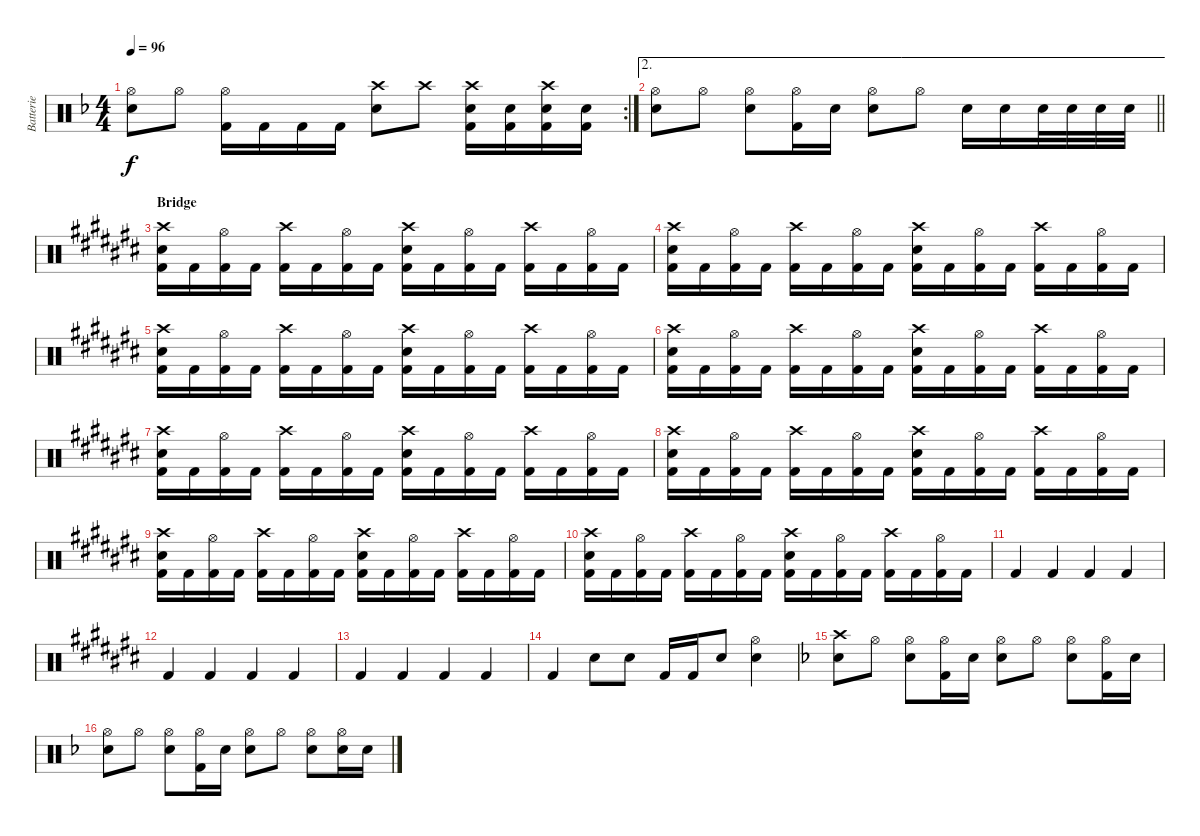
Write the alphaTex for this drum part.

\track ("Batterie" "Batterie") {instrument percussion}
\staff {score}
\articulation defaults
\rc 2
\ts (4 4)
\tempo 96
\clef neutral
\ks f
("Hi-Hat (open)" "Snare (hit) 2").8{dy f} "Hi-Hat (open)".8 ("Hi-Hat (open)" "Kick (hit) 2").16 "Kick (hit) 2".16 "Kick (hit) 2".16 "Kick (hit) 2".16 ("Crash high (hit)" "Snare (hit) 2").8 "Crash high (hit)".8 ("Crash high (hit)" "Snare (hit) 2" "Kick (hit) 2").16 ("Snare (hit) 2" "Kick (hit) 2").16 ("Crash high (hit)" "Snare (hit) 2" "Kick (hit) 2").16 ("Snare (hit) 2" "Kick (hit) 2").16 |
\ae 2
\barLineRight lightlight
("Hi-Hat (open)" "Snare (hit) 2").8 "Hi-Hat (open)".8 ("Hi-Hat (open)" "Snare (hit) 2").8 ("Hi-Hat (open)" "Kick (hit) 2").16 "Snare (hit) 2".16 ("Hi-Hat (open)" "Snare (hit) 2").8 "Hi-Hat (open)".8 "Snare (hit) 2".16 "Snare (hit) 2".16 "Snare (hit) 2".32 "Snare (hit) 2".32 "Snare (hit) 2".32 "Snare (hit) 2".32 |
\section ("" "Bridge")
\ks c#
("Crash high (hit)" "Snare (hit) 2" "Kick (hit) 2").16 "Kick (hit) 2".16 ("Hi-Hat (open)" "Kick (hit) 2").16 "Kick (hit) 2".16 ("Crash high (hit)" "Kick (hit) 2").16 "Kick (hit) 2".16 ("Hi-Hat (open)" "Kick (hit) 2").16 "Kick (hit) 2".16 ("Crash high (hit)" "Snare (hit) 2" "Kick (hit) 2").16 "Kick (hit) 2".16 ("Hi-Hat (open)" "Kick (hit) 2").16 "Kick (hit) 2".16 ("Crash high (hit)" "Kick (hit) 2").16 "Kick (hit) 2".16 ("Hi-Hat (open)" "Kick (hit) 2").16 "Kick (hit) 2".16 |
("Crash high (hit)" "Snare (hit) 2" "Kick (hit) 2").16 "Kick (hit) 2".16 ("Hi-Hat (open)" "Kick (hit) 2").16 "Kick (hit) 2".16 ("Crash high (hit)" "Kick (hit) 2").16 "Kick (hit) 2".16 ("Hi-Hat (open)" "Kick (hit) 2").16 "Kick (hit) 2".16 ("Crash high (hit)" "Snare (hit) 2" "Kick (hit) 2").16 "Kick (hit) 2".16 ("Hi-Hat (open)" "Kick (hit) 2").16 "Kick (hit) 2".16 ("Crash high (hit)" "Kick (hit) 2").16 "Kick (hit) 2".16 ("Hi-Hat (open)" "Kick (hit) 2").16 "Kick (hit) 2".16 |
("Crash high (hit)" "Snare (hit) 2" "Kick (hit) 2").16 "Kick (hit) 2".16 ("Hi-Hat (open)" "Kick (hit) 2").16 "Kick (hit) 2".16 ("Crash high (hit)" "Kick (hit) 2").16 "Kick (hit) 2".16 ("Hi-Hat (open)" "Kick (hit) 2").16 "Kick (hit) 2".16 ("Crash high (hit)" "Snare (hit) 2" "Kick (hit) 2").16 "Kick (hit) 2".16 ("Hi-Hat (open)" "Kick (hit) 2").16 "Kick (hit) 2".16 ("Crash high (hit)" "Kick (hit) 2").16 "Kick (hit) 2".16 ("Hi-Hat (open)" "Kick (hit) 2").16 "Kick (hit) 2".16 |
("Crash high (hit)" "Snare (hit) 2" "Kick (hit) 2").16 "Kick (hit) 2".16 ("Hi-Hat (open)" "Kick (hit) 2").16 "Kick (hit) 2".16 ("Crash high (hit)" "Kick (hit) 2").16 "Kick (hit) 2".16 ("Hi-Hat (open)" "Kick (hit) 2").16 "Kick (hit) 2".16 ("Crash high (hit)" "Snare (hit) 2" "Kick (hit) 2").16 "Kick (hit) 2".16 ("Hi-Hat (open)" "Kick (hit) 2").16 "Kick (hit) 2".16 ("Crash high (hit)" "Kick (hit) 2").16 "Kick (hit) 2".16 ("Hi-Hat (open)" "Kick (hit) 2").16 "Kick (hit) 2".16 |
("Crash high (hit)" "Snare (hit) 2" "Kick (hit) 2").16 "Kick (hit) 2".16 ("Hi-Hat (open)" "Kick (hit) 2").16 "Kick (hit) 2".16 ("Crash high (hit)" "Kick (hit) 2").16 "Kick (hit) 2".16 ("Hi-Hat (open)" "Kick (hit) 2").16 "Kick (hit) 2".16 ("Crash high (hit)" "Snare (hit) 2" "Kick (hit) 2").16 "Kick (hit) 2".16 ("Hi-Hat (open)" "Kick (hit) 2").16 "Kick (hit) 2".16 ("Crash high (hit)" "Kick (hit) 2").16 "Kick (hit) 2".16 ("Hi-Hat (open)" "Kick (hit) 2").16 "Kick (hit) 2".16 |
("Crash high (hit)" "Snare (hit) 2" "Kick (hit) 2").16 "Kick (hit) 2".16 ("Hi-Hat (open)" "Kick (hit) 2").16 "Kick (hit) 2".16 ("Crash high (hit)" "Kick (hit) 2").16 "Kick (hit) 2".16 ("Hi-Hat (open)" "Kick (hit) 2").16 "Kick (hit) 2".16 ("Crash high (hit)" "Snare (hit) 2" "Kick (hit) 2").16 "Kick (hit) 2".16 ("Hi-Hat (open)" "Kick (hit) 2").16 "Kick (hit) 2".16 ("Crash high (hit)" "Kick (hit) 2").16 "Kick (hit) 2".16 ("Hi-Hat (open)" "Kick (hit) 2").16 "Kick (hit) 2".16 |
("Crash high (hit)" "Snare (hit) 2" "Kick (hit) 2").16 "Kick (hit) 2".16 ("Hi-Hat (open)" "Kick (hit) 2").16 "Kick (hit) 2".16 ("Crash high (hit)" "Kick (hit) 2").16 "Kick (hit) 2".16 ("Hi-Hat (open)" "Kick (hit) 2").16 "Kick (hit) 2".16 ("Crash high (hit)" "Snare (hit) 2" "Kick (hit) 2").16 "Kick (hit) 2".16 ("Hi-Hat (open)" "Kick (hit) 2").16 "Kick (hit) 2".16 ("Crash high (hit)" "Kick (hit) 2").16 "Kick (hit) 2".16 ("Hi-Hat (open)" "Kick (hit) 2").16 "Kick (hit) 2".16 |
("Crash high (hit)" "Snare (hit) 2" "Kick (hit) 2").16 "Kick (hit) 2".16 ("Hi-Hat (open)" "Kick (hit) 2").16 "Kick (hit) 2".16 ("Crash high (hit)" "Kick (hit) 2").16 "Kick (hit) 2".16 ("Hi-Hat (open)" "Kick (hit) 2").16 "Kick (hit) 2".16 ("Crash high (hit)" "Snare (hit) 2" "Kick (hit) 2").16 "Kick (hit) 2".16 ("Hi-Hat (open)" "Kick (hit) 2").16 "Kick (hit) 2".16 ("Crash high (hit)" "Kick (hit) 2").16 "Kick (hit) 2".16 ("Hi-Hat (open)" "Kick (hit) 2").16 "Kick (hit) 2".16 |
"Kick (hit) 2".4 "Kick (hit) 2".4 "Kick (hit) 2".4 "Kick (hit) 2".4 |
"Kick (hit) 2".4 "Kick (hit) 2".4 "Kick (hit) 2".4 "Kick (hit) 2".4 |
"Kick (hit) 2".4 "Kick (hit) 2".4 "Kick (hit) 2".4 "Kick (hit) 2".4 |
"Kick (hit) 2".4 "Snare (hit) 2".8 "Snare (hit) 2".8 "Kick (hit) 2".16 "Kick (hit) 2".16 "Snare (hit) 2".8 ("Hi-Hat (open)" "Snare (hit) 2").4 |
\ks f
("Crash high (hit)" "Snare (hit) 2").8 "Hi-Hat (open)".8 ("Hi-Hat (open)" "Snare (hit) 2").8 ("Hi-Hat (open)" "Kick (hit) 2").16 "Snare (hit) 2".16 ("Hi-Hat (open)" "Snare (hit) 2").8 "Hi-Hat (open)".8 ("Hi-Hat (open)" "Snare (hit) 2").8 ("Hi-Hat (open)" "Kick (hit) 2").16 "Snare (hit) 2".16 |
("Hi-Hat (open)" "Snare (hit) 2").8 "Hi-Hat (open)".8 ("Hi-Hat (open)" "Snare (hit) 2").8 ("Hi-Hat (open)" "Kick (hit) 2").16 "Snare (hit) 2".16 ("Hi-Hat (open)" "Snare (hit) 2").8 "Hi-Hat (open)".8 ("Hi-Hat (open)" "Snare (hit) 2").8 ("Hi-Hat (open)" "Snare (hit) 2").16 "Snare (hit) 2".16
